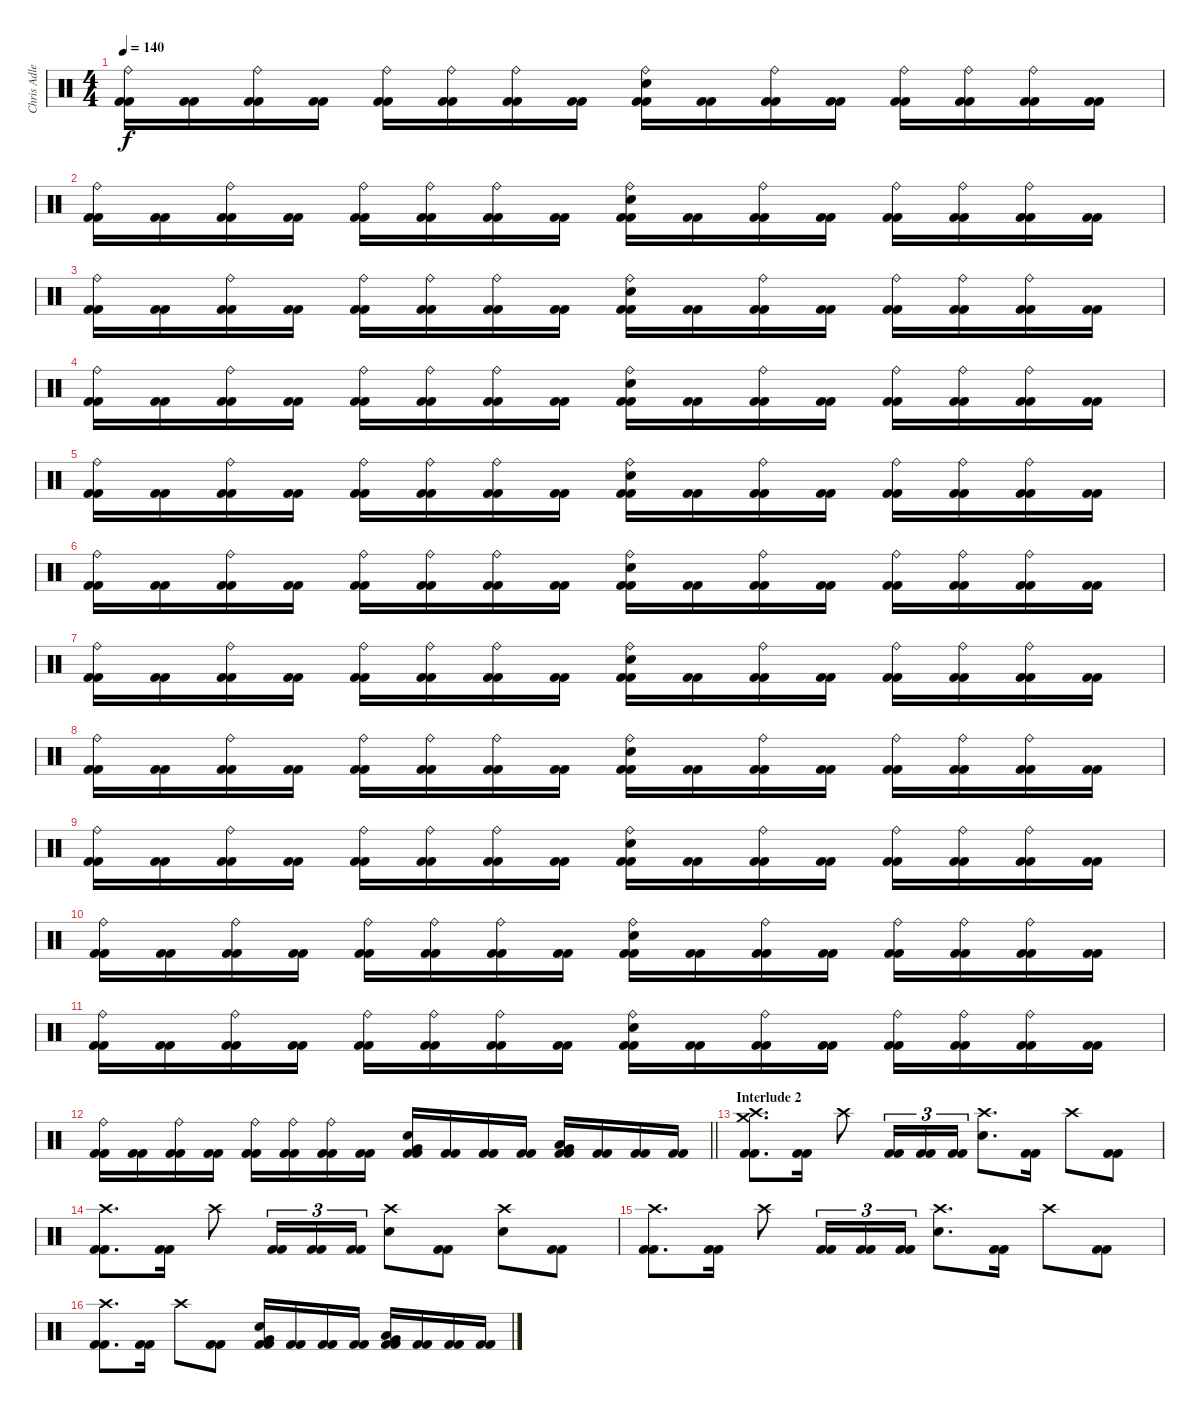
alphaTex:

\track ("Chris Adler" "Chris Adle") {instrument percussion}
\staff {score}
\articulation defaults
\ts (4 4)
\tempo 140
\clef neutral
\ks c
("Ride (bell)" "Kick (hit) 2" "Kick (hit) 2").16{dy f} ("Kick (hit) 2" "Kick (hit) 2").16 ("Ride (bell)" "Kick (hit) 2" "Kick (hit) 2").16 ("Kick (hit) 2" "Kick (hit) 2").16 ("Ride (bell)" "Kick (hit) 2" "Kick (hit) 2").16 ("Ride (bell)" "Kick (hit) 2" "Kick (hit) 2").16 ("Ride (bell)" "Kick (hit) 2" "Kick (hit) 2").16 ("Kick (hit) 2" "Kick (hit) 2").16 ("Ride (bell)" "Electric Snare (hit)" "Kick (hit) 2" "Kick (hit) 2").16 ("Kick (hit) 2" "Kick (hit) 2").16 ("Ride (bell)" "Kick (hit) 2" "Kick (hit) 2").16 ("Kick (hit) 2" "Kick (hit) 2").16 ("Ride (bell)" "Kick (hit) 2" "Kick (hit) 2").16 ("Ride (bell)" "Kick (hit) 2" "Kick (hit) 2").16 ("Ride (bell)" "Kick (hit) 2" "Kick (hit) 2").16 ("Kick (hit) 2" "Kick (hit) 2").16 |
("Ride (bell)" "Kick (hit) 2" "Kick (hit) 2").16 ("Kick (hit) 2" "Kick (hit) 2").16 ("Ride (bell)" "Kick (hit) 2" "Kick (hit) 2").16 ("Kick (hit) 2" "Kick (hit) 2").16 ("Ride (bell)" "Kick (hit) 2" "Kick (hit) 2").16 ("Ride (bell)" "Kick (hit) 2" "Kick (hit) 2").16 ("Ride (bell)" "Kick (hit) 2" "Kick (hit) 2").16 ("Kick (hit) 2" "Kick (hit) 2").16 ("Ride (bell)" "Electric Snare (hit)" "Kick (hit) 2" "Kick (hit) 2").16 ("Kick (hit) 2" "Kick (hit) 2").16 ("Ride (bell)" "Kick (hit) 2" "Kick (hit) 2").16 ("Kick (hit) 2" "Kick (hit) 2").16 ("Ride (bell)" "Kick (hit) 2" "Kick (hit) 2").16 ("Ride (bell)" "Kick (hit) 2" "Kick (hit) 2").16 ("Ride (bell)" "Kick (hit) 2" "Kick (hit) 2").16 ("Kick (hit) 2" "Kick (hit) 2").16 |
("Ride (bell)" "Kick (hit) 2" "Kick (hit) 2").16 ("Kick (hit) 2" "Kick (hit) 2").16 ("Ride (bell)" "Kick (hit) 2" "Kick (hit) 2").16 ("Kick (hit) 2" "Kick (hit) 2").16 ("Ride (bell)" "Kick (hit) 2" "Kick (hit) 2").16 ("Ride (bell)" "Kick (hit) 2" "Kick (hit) 2").16 ("Ride (bell)" "Kick (hit) 2" "Kick (hit) 2").16 ("Kick (hit) 2" "Kick (hit) 2").16 ("Ride (bell)" "Electric Snare (hit)" "Kick (hit) 2" "Kick (hit) 2").16 ("Kick (hit) 2" "Kick (hit) 2").16 ("Ride (bell)" "Kick (hit) 2" "Kick (hit) 2").16 ("Kick (hit) 2" "Kick (hit) 2").16 ("Ride (bell)" "Kick (hit) 2" "Kick (hit) 2").16 ("Ride (bell)" "Kick (hit) 2" "Kick (hit) 2").16 ("Ride (bell)" "Kick (hit) 2" "Kick (hit) 2").16 ("Kick (hit) 2" "Kick (hit) 2").16 |
("Ride (bell)" "Kick (hit) 2" "Kick (hit) 2").16 ("Kick (hit) 2" "Kick (hit) 2").16 ("Ride (bell)" "Kick (hit) 2" "Kick (hit) 2").16 ("Kick (hit) 2" "Kick (hit) 2").16 ("Ride (bell)" "Kick (hit) 2" "Kick (hit) 2").16 ("Ride (bell)" "Kick (hit) 2" "Kick (hit) 2").16 ("Ride (bell)" "Kick (hit) 2" "Kick (hit) 2").16 ("Kick (hit) 2" "Kick (hit) 2").16 ("Ride (bell)" "Electric Snare (hit)" "Kick (hit) 2" "Kick (hit) 2").16 ("Kick (hit) 2" "Kick (hit) 2").16 ("Ride (bell)" "Kick (hit) 2" "Kick (hit) 2").16 ("Kick (hit) 2" "Kick (hit) 2").16 ("Ride (bell)" "Kick (hit) 2" "Kick (hit) 2").16 ("Ride (bell)" "Kick (hit) 2" "Kick (hit) 2").16 ("Ride (bell)" "Kick (hit) 2" "Kick (hit) 2").16 ("Kick (hit) 2" "Kick (hit) 2").16 |
("Ride (bell)" "Kick (hit) 2" "Kick (hit) 2").16 ("Kick (hit) 2" "Kick (hit) 2").16 ("Ride (bell)" "Kick (hit) 2" "Kick (hit) 2").16 ("Kick (hit) 2" "Kick (hit) 2").16 ("Ride (bell)" "Kick (hit) 2" "Kick (hit) 2").16 ("Ride (bell)" "Kick (hit) 2" "Kick (hit) 2").16 ("Ride (bell)" "Kick (hit) 2" "Kick (hit) 2").16 ("Kick (hit) 2" "Kick (hit) 2").16 ("Ride (bell)" "Electric Snare (hit)" "Kick (hit) 2" "Kick (hit) 2").16 ("Kick (hit) 2" "Kick (hit) 2").16 ("Ride (bell)" "Kick (hit) 2" "Kick (hit) 2").16 ("Kick (hit) 2" "Kick (hit) 2").16 ("Ride (bell)" "Kick (hit) 2" "Kick (hit) 2").16 ("Ride (bell)" "Kick (hit) 2" "Kick (hit) 2").16 ("Ride (bell)" "Kick (hit) 2" "Kick (hit) 2").16 ("Kick (hit) 2" "Kick (hit) 2").16 |
("Ride (bell)" "Kick (hit) 2" "Kick (hit) 2").16 ("Kick (hit) 2" "Kick (hit) 2").16 ("Ride (bell)" "Kick (hit) 2" "Kick (hit) 2").16 ("Kick (hit) 2" "Kick (hit) 2").16 ("Ride (bell)" "Kick (hit) 2" "Kick (hit) 2").16 ("Ride (bell)" "Kick (hit) 2" "Kick (hit) 2").16 ("Ride (bell)" "Kick (hit) 2" "Kick (hit) 2").16 ("Kick (hit) 2" "Kick (hit) 2").16 ("Ride (bell)" "Electric Snare (hit)" "Kick (hit) 2" "Kick (hit) 2").16 ("Kick (hit) 2" "Kick (hit) 2").16 ("Ride (bell)" "Kick (hit) 2" "Kick (hit) 2").16 ("Kick (hit) 2" "Kick (hit) 2").16 ("Ride (bell)" "Kick (hit) 2" "Kick (hit) 2").16 ("Ride (bell)" "Kick (hit) 2" "Kick (hit) 2").16 ("Ride (bell)" "Kick (hit) 2" "Kick (hit) 2").16 ("Kick (hit) 2" "Kick (hit) 2").16 |
("Ride (bell)" "Kick (hit) 2" "Kick (hit) 2").16 ("Kick (hit) 2" "Kick (hit) 2").16 ("Ride (bell)" "Kick (hit) 2" "Kick (hit) 2").16 ("Kick (hit) 2" "Kick (hit) 2").16 ("Ride (bell)" "Kick (hit) 2" "Kick (hit) 2").16 ("Ride (bell)" "Kick (hit) 2" "Kick (hit) 2").16 ("Ride (bell)" "Kick (hit) 2" "Kick (hit) 2").16 ("Kick (hit) 2" "Kick (hit) 2").16 ("Ride (bell)" "Electric Snare (hit)" "Kick (hit) 2" "Kick (hit) 2").16 ("Kick (hit) 2" "Kick (hit) 2").16 ("Ride (bell)" "Kick (hit) 2" "Kick (hit) 2").16 ("Kick (hit) 2" "Kick (hit) 2").16 ("Ride (bell)" "Kick (hit) 2" "Kick (hit) 2").16 ("Ride (bell)" "Kick (hit) 2" "Kick (hit) 2").16 ("Ride (bell)" "Kick (hit) 2" "Kick (hit) 2").16 ("Kick (hit) 2" "Kick (hit) 2").16 |
("Ride (bell)" "Kick (hit) 2" "Kick (hit) 2").16 ("Kick (hit) 2" "Kick (hit) 2").16 ("Ride (bell)" "Kick (hit) 2" "Kick (hit) 2").16 ("Kick (hit) 2" "Kick (hit) 2").16 ("Ride (bell)" "Kick (hit) 2" "Kick (hit) 2").16 ("Ride (bell)" "Kick (hit) 2" "Kick (hit) 2").16 ("Ride (bell)" "Kick (hit) 2" "Kick (hit) 2").16 ("Kick (hit) 2" "Kick (hit) 2").16 ("Ride (bell)" "Electric Snare (hit)" "Kick (hit) 2" "Kick (hit) 2").16 ("Kick (hit) 2" "Kick (hit) 2").16 ("Ride (bell)" "Kick (hit) 2" "Kick (hit) 2").16 ("Kick (hit) 2" "Kick (hit) 2").16 ("Ride (bell)" "Kick (hit) 2" "Kick (hit) 2").16 ("Ride (bell)" "Kick (hit) 2" "Kick (hit) 2").16 ("Ride (bell)" "Kick (hit) 2" "Kick (hit) 2").16 ("Kick (hit) 2" "Kick (hit) 2").16 |
("Ride (bell)" "Kick (hit) 2" "Kick (hit) 2").16 ("Kick (hit) 2" "Kick (hit) 2").16 ("Ride (bell)" "Kick (hit) 2" "Kick (hit) 2").16 ("Kick (hit) 2" "Kick (hit) 2").16 ("Ride (bell)" "Kick (hit) 2" "Kick (hit) 2").16 ("Ride (bell)" "Kick (hit) 2" "Kick (hit) 2").16 ("Ride (bell)" "Kick (hit) 2" "Kick (hit) 2").16 ("Kick (hit) 2" "Kick (hit) 2").16 ("Ride (bell)" "Electric Snare (hit)" "Kick (hit) 2" "Kick (hit) 2").16 ("Kick (hit) 2" "Kick (hit) 2").16 ("Ride (bell)" "Kick (hit) 2" "Kick (hit) 2").16 ("Kick (hit) 2" "Kick (hit) 2").16 ("Ride (bell)" "Kick (hit) 2" "Kick (hit) 2").16 ("Ride (bell)" "Kick (hit) 2" "Kick (hit) 2").16 ("Ride (bell)" "Kick (hit) 2" "Kick (hit) 2").16 ("Kick (hit) 2" "Kick (hit) 2").16 |
("Ride (bell)" "Kick (hit) 2" "Kick (hit) 2").16 ("Kick (hit) 2" "Kick (hit) 2").16 ("Ride (bell)" "Kick (hit) 2" "Kick (hit) 2").16 ("Kick (hit) 2" "Kick (hit) 2").16 ("Ride (bell)" "Kick (hit) 2" "Kick (hit) 2").16 ("Ride (bell)" "Kick (hit) 2" "Kick (hit) 2").16 ("Ride (bell)" "Kick (hit) 2" "Kick (hit) 2").16 ("Kick (hit) 2" "Kick (hit) 2").16 ("Ride (bell)" "Electric Snare (hit)" "Kick (hit) 2" "Kick (hit) 2").16 ("Kick (hit) 2" "Kick (hit) 2").16 ("Ride (bell)" "Kick (hit) 2" "Kick (hit) 2").16 ("Kick (hit) 2" "Kick (hit) 2").16 ("Ride (bell)" "Kick (hit) 2" "Kick (hit) 2").16 ("Ride (bell)" "Kick (hit) 2" "Kick (hit) 2").16 ("Ride (bell)" "Kick (hit) 2" "Kick (hit) 2").16 ("Kick (hit) 2" "Kick (hit) 2").16 |
("Ride (bell)" "Kick (hit) 2" "Kick (hit) 2").16 ("Kick (hit) 2" "Kick (hit) 2").16 ("Ride (bell)" "Kick (hit) 2" "Kick (hit) 2").16 ("Kick (hit) 2" "Kick (hit) 2").16 ("Ride (bell)" "Kick (hit) 2" "Kick (hit) 2").16 ("Ride (bell)" "Kick (hit) 2" "Kick (hit) 2").16 ("Ride (bell)" "Kick (hit) 2" "Kick (hit) 2").16 ("Kick (hit) 2" "Kick (hit) 2").16 ("Ride (bell)" "Electric Snare (hit)" "Kick (hit) 2" "Kick (hit) 2").16 ("Kick (hit) 2" "Kick (hit) 2").16 ("Ride (bell)" "Kick (hit) 2" "Kick (hit) 2").16 ("Kick (hit) 2" "Kick (hit) 2").16 ("Ride (bell)" "Kick (hit) 2" "Kick (hit) 2").16 ("Ride (bell)" "Kick (hit) 2" "Kick (hit) 2").16 ("Ride (bell)" "Kick (hit) 2" "Kick (hit) 2").16 ("Kick (hit) 2" "Kick (hit) 2").16 |
\barLineRight lightlight
("Ride (bell)" "Kick (hit) 2" "Kick (hit) 2").16 ("Kick (hit) 2" "Kick (hit) 2").16 ("Ride (bell)" "Kick (hit) 2" "Kick (hit) 2").16 ("Kick (hit) 2" "Kick (hit) 2").16 ("Ride (bell)" "Kick (hit) 2" "Kick (hit) 2").16 ("Ride (bell)" "Kick (hit) 2" "Kick (hit) 2").16 ("Ride (bell)" "Kick (hit) 2" "Kick (hit) 2").16 ("Kick (hit) 2" "Kick (hit) 2").16 ("Very Low Tom (hit)" "Electric Snare (hit)" "Kick (hit) 2" "Kick (hit) 2").16 ("Kick (hit) 2" "Kick (hit) 2").16 ("Kick (hit) 2" "Kick (hit) 2").16 ("Kick (hit) 2" "Kick (hit) 2").16 ("Low Tom (hit)" "Very Low Tom (hit)" "Kick (hit) 2" "Kick (hit) 2").16 ("Kick (hit) 2" "Kick (hit) 2").16 ("Kick (hit) 2" "Kick (hit) 2").16 ("Kick (hit) 2" "Kick (hit) 2").16 |
\section ("" "Interlude 2")
("Crash medium (hit)" "Crash high (hit)" "Kick (hit) 2" "Kick (hit) 2").8{d} ("Kick (hit) 2" "Kick (hit) 2").16 "Crash high (hit)".8 ("Kick (hit) 2" "Kick (hit) 2").16{tu (3 2)} ("Kick (hit) 2" "Kick (hit) 2").16{tu (3 2)} ("Kick (hit) 2" "Kick (hit) 2").16{tu (3 2)} ("Crash high (hit)" "Electric Snare (hit)").8{d} ("Kick (hit) 2" "Kick (hit) 2").16 "Crash high (hit)".8 ("Kick (hit) 2" "Kick (hit) 2").8 |
("Crash high (hit)" "Kick (hit) 2" "Kick (hit) 2").8{d} ("Kick (hit) 2" "Kick (hit) 2").16 "Crash high (hit)".8 ("Kick (hit) 2" "Kick (hit) 2").16{tu (3 2)} ("Kick (hit) 2" "Kick (hit) 2").16{tu (3 2)} ("Kick (hit) 2" "Kick (hit) 2").16{tu (3 2)} ("Crash high (hit)" "Electric Snare (hit)").8 ("Kick (hit) 2" "Kick (hit) 2").8 ("Crash high (hit)" "Electric Snare (hit)").8 ("Kick (hit) 2" "Kick (hit) 2").8 |
("Crash high (hit)" "Kick (hit) 2" "Kick (hit) 2").8{d} ("Kick (hit) 2" "Kick (hit) 2").16 "Crash high (hit)".8 ("Kick (hit) 2" "Kick (hit) 2").16{tu (3 2)} ("Kick (hit) 2" "Kick (hit) 2").16{tu (3 2)} ("Kick (hit) 2" "Kick (hit) 2").16{tu (3 2)} ("Crash high (hit)" "Electric Snare (hit)").8{d} ("Kick (hit) 2" "Kick (hit) 2").16 "Crash high (hit)".8 ("Kick (hit) 2" "Kick (hit) 2").8 |
("Crash high (hit)" "Kick (hit) 2" "Kick (hit) 2").8{d} ("Kick (hit) 2" "Kick (hit) 2").16 "Crash high (hit)".8 ("Kick (hit) 2" "Kick (hit) 2").8 ("Very Low Tom (hit)" "Electric Snare (hit)" "Kick (hit) 2" "Kick (hit) 2").16 ("Kick (hit) 2" "Kick (hit) 2").16 ("Kick (hit) 2" "Kick (hit) 2").16 ("Kick (hit) 2" "Kick (hit) 2").16 ("Low Tom (hit)" "Very Low Tom (hit)" "Kick (hit) 2" "Kick (hit) 2").16 ("Kick (hit) 2" "Kick (hit) 2").16 ("Kick (hit) 2" "Kick (hit) 2").16 ("Kick (hit) 2" "Kick (hit) 2").16
